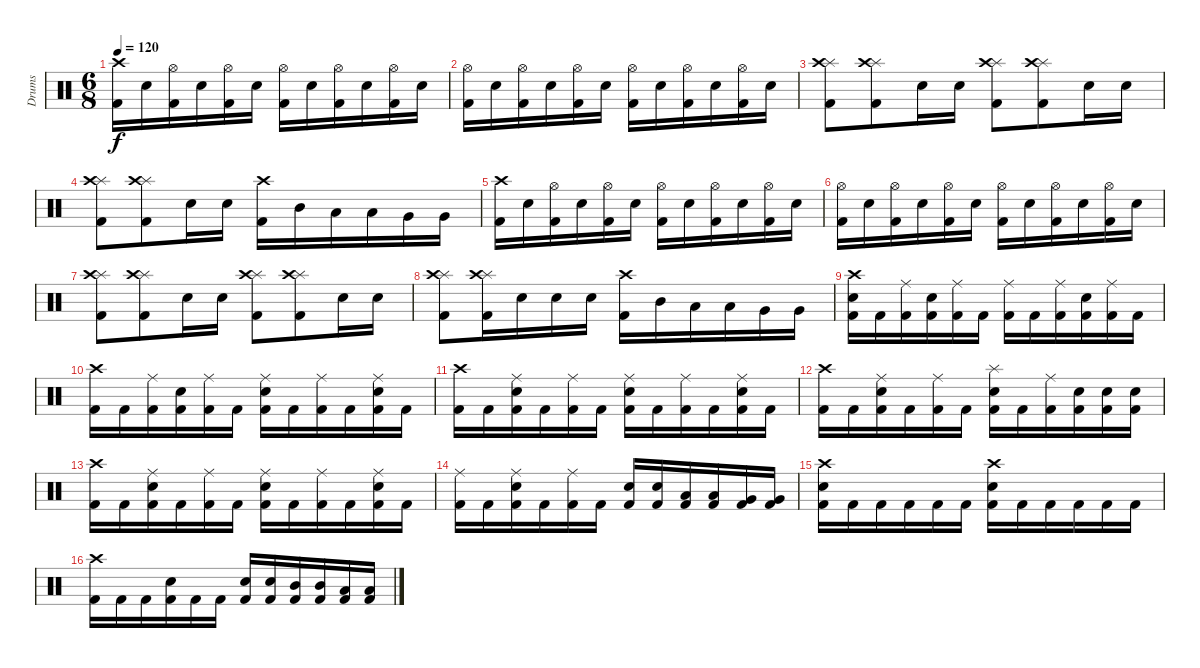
\track ("Drums" "Drums") {instrument percussion}
\staff {score}
\articulation defaults
\ts (6 8)
\tempo 120
\clef neutral
\ks c
("Crash high (hit)" "Kick (hit) 2").16{dy f} "Snare (hit) 2".16 ("Hi-Hat (open)" "Kick (hit) 2").16 "Snare (hit) 2".16 ("Hi-Hat (open)" "Kick (hit) 2").16 "Snare (hit) 2".16 ("Hi-Hat (open)" "Kick (hit) 2").16 "Snare (hit) 2".16 ("Hi-Hat (open)" "Kick (hit) 2").16 "Snare (hit) 2".16 ("Hi-Hat (open)" "Kick (hit) 2").16 "Snare (hit) 2".16 |
("Hi-Hat (open)" "Kick (hit) 2").16 "Snare (hit) 2".16 ("Hi-Hat (open)" "Kick (hit) 2").16 "Snare (hit) 2".16 ("Hi-Hat (open)" "Kick (hit) 2").16 "Snare (hit) 2".16 ("Hi-Hat (open)" "Kick (hit) 2").16 "Snare (hit) 2".16 ("Hi-Hat (open)" "Kick (hit) 2").16 "Snare (hit) 2".16 ("Hi-Hat (open)" "Kick (hit) 2").16 "Snare (hit) 2".16 |
("Splash (hit)" "Crash high (hit)" "Kick (hit) 2").8 ("Splash (hit)" "Crash high (hit)" "Kick (hit) 2").8 "Snare (hit) 2".16 "Snare (hit) 2".16 ("Splash (hit)" "Crash high (hit)" "Kick (hit) 2").8 ("Splash (hit)" "Crash high (hit)" "Kick (hit) 2").8 "Snare (hit) 2".16 "Snare (hit) 2".16 |
("Splash (hit)" "Crash high (hit)" "Kick (hit) 2").8 ("Splash (hit)" "Crash high (hit)" "Kick (hit) 2").8 "Snare (hit) 2".16 "Snare (hit) 2".16 ("Crash high (hit)" "Kick (hit) 2").16 "Mid Tom (hit)".16 "Low Tom (hit)".16 "Low Tom (hit)".16 "Very Low Tom (hit)".16 "Very Low Tom (hit)".16 |
("Crash high (hit)" "Kick (hit) 2").16 "Snare (hit) 2".16 ("Hi-Hat (open)" "Kick (hit) 2").16 "Snare (hit) 2".16 ("Hi-Hat (open)" "Kick (hit) 2").16 "Snare (hit) 2".16 ("Hi-Hat (open)" "Kick (hit) 2").16 "Snare (hit) 2".16 ("Hi-Hat (open)" "Kick (hit) 2").16 "Snare (hit) 2".16 ("Hi-Hat (open)" "Kick (hit) 2").16 "Snare (hit) 2".16 |
("Hi-Hat (open)" "Kick (hit) 2").16 "Snare (hit) 2".16 ("Hi-Hat (open)" "Kick (hit) 2").16 "Snare (hit) 2".16 ("Hi-Hat (open)" "Kick (hit) 2").16 "Snare (hit) 2".16 ("Hi-Hat (open)" "Kick (hit) 2").16 "Snare (hit) 2".16 ("Hi-Hat (open)" "Kick (hit) 2").16 "Snare (hit) 2".16 ("Hi-Hat (open)" "Kick (hit) 2").16 "Snare (hit) 2".16 |
("Splash (hit)" "Crash high (hit)" "Kick (hit) 2").8 ("Splash (hit)" "Crash high (hit)" "Kick (hit) 2").8 "Snare (hit) 2".16 "Snare (hit) 2".16 ("Splash (hit)" "Crash high (hit)" "Kick (hit) 2").8 ("Splash (hit)" "Crash high (hit)" "Kick (hit) 2").8 "Snare (hit) 2".16 "Snare (hit) 2".16 |
("Splash (hit)" "Crash high (hit)" "Kick (hit) 2").8 ("Splash (hit)" "Crash high (hit)" "Kick (hit) 2").16 "Snare (hit) 2".16 "Snare (hit) 2".16 "Snare (hit) 2".16 ("Crash high (hit)" "Kick (hit) 2").16 "Mid Tom (hit)".16 "Low Tom (hit)".16 "Low Tom (hit)".16 "Very Low Tom (hit)".16 "Very Low Tom (hit)".16 |
("Crash high (hit)" "Snare (hit) 2" "Kick (hit) 2").16 "Kick (hit) 2".16 ("Ride (middle)" "Kick (hit) 2").16 ("Snare (hit) 2" "Kick (hit) 2").16 ("Ride (middle)" "Kick (hit) 2").16 "Kick (hit) 2".16 ("Ride (middle)" "Kick (hit) 2").16 "Kick (hit) 2".16 ("Ride (middle)" "Kick (hit) 2").16 ("Snare (hit) 2" "Kick (hit) 2").16 ("Ride (middle)" "Kick (hit) 2").16 "Kick (hit) 2".16 |
("Crash high (hit)" "Kick (hit) 2").16 "Kick (hit) 2".16 ("Ride (middle)" "Kick (hit) 2").16 ("Snare (hit) 2" "Kick (hit) 2").16 ("Ride (middle)" "Kick (hit) 2").16 "Kick (hit) 2".16 ("Ride (middle)" "Snare (hit) 2" "Kick (hit) 2").16 "Kick (hit) 2".16 ("Ride (middle)" "Kick (hit) 2").16 "Kick (hit) 2".16 ("Ride (middle)" "Snare (hit) 2" "Kick (hit) 2").16 "Kick (hit) 2".16 |
("Crash high (hit)" "Kick (hit) 2").16 "Kick (hit) 2".16 ("Ride (middle)" "Snare (hit) 2" "Kick (hit) 2").16 "Kick (hit) 2".16 ("Ride (middle)" "Kick (hit) 2").16 "Kick (hit) 2".16 ("Ride (middle)" "Snare (hit) 2" "Kick (hit) 2").16 "Kick (hit) 2".16 ("Ride (middle)" "Kick (hit) 2").16 "Kick (hit) 2".16 ("Ride (middle)" "Snare (hit) 2" "Kick (hit) 2").16 "Kick (hit) 2".16 |
("Crash high (hit)" "Kick (hit) 2").16 "Kick (hit) 2".16 ("Ride (middle)" "Snare (hit) 2" "Kick (hit) 2").16 "Kick (hit) 2".16 ("Ride (middle)" "Kick (hit) 2").16 "Kick (hit) 2".16 ("Splash (hit)" "Snare (hit) 2" "Kick (hit) 2").16 "Kick (hit) 2".16 ("Ride (middle)" "Kick (hit) 2").16 ("Snare (hit) 2" "Kick (hit) 2").16 ("Snare (hit) 2" "Kick (hit) 2").16 ("Snare (hit) 2" "Kick (hit) 2").16 |
("Crash high (hit)" "Kick (hit) 2").16 "Kick (hit) 2".16 ("Ride (middle)" "Snare (hit) 2" "Kick (hit) 2").16 "Kick (hit) 2".16 ("Ride (middle)" "Kick (hit) 2").16 "Kick (hit) 2".16 ("Ride (middle)" "Snare (hit) 2" "Kick (hit) 2").16 "Kick (hit) 2".16 ("Ride (middle)" "Kick (hit) 2").16 "Kick (hit) 2".16 ("Ride (middle)" "Snare (hit) 2" "Kick (hit) 2").16 "Kick (hit) 2".16 |
("Ride (middle)" "Kick (hit) 2").16 "Kick (hit) 2".16 ("Ride (middle)" "Snare (hit) 2" "Kick (hit) 2").16 "Kick (hit) 2".16 ("Ride (middle)" "Kick (hit) 2").16 "Kick (hit) 2".16 ("Snare (hit) 2" "Kick (hit) 2").16 ("Snare (hit) 2" "Kick (hit) 2").16 ("Low Tom (hit)" "Kick (hit) 2").16 ("Low Tom (hit)" "Kick (hit) 2").16 ("Very Low Tom (hit)" "Kick (hit) 2").16 ("Very Low Tom (hit)" "Kick (hit) 2").16 |
("Crash high (hit)" "Snare (hit) 2" "Kick (hit) 2").16 "Kick (hit) 2".16 "Kick (hit) 2".16 "Kick (hit) 2".16 "Kick (hit) 2".16 "Kick (hit) 2".16 ("Crash high (hit)" "Snare (hit) 2" "Kick (hit) 2").16 "Kick (hit) 2".16 "Kick (hit) 2".16 "Kick (hit) 2".16 "Kick (hit) 2".16 "Kick (hit) 2".16 |
("Crash high (hit)" "Kick (hit) 2").16 "Kick (hit) 2".16 "Kick (hit) 2".16 ("Snare (hit) 2" "Kick (hit) 2").16 "Kick (hit) 2".16 "Kick (hit) 2".16 ("Snare (hit) 2" "Kick (hit) 2").16 ("Snare (hit) 2" "Kick (hit) 2").16 ("Mid Tom (hit)" "Kick (hit) 2").16 ("Mid Tom (hit)" "Kick (hit) 2").16 ("Low Tom (hit)" "Kick (hit) 2").16 ("Low Tom (hit)" "Kick (hit) 2").16
